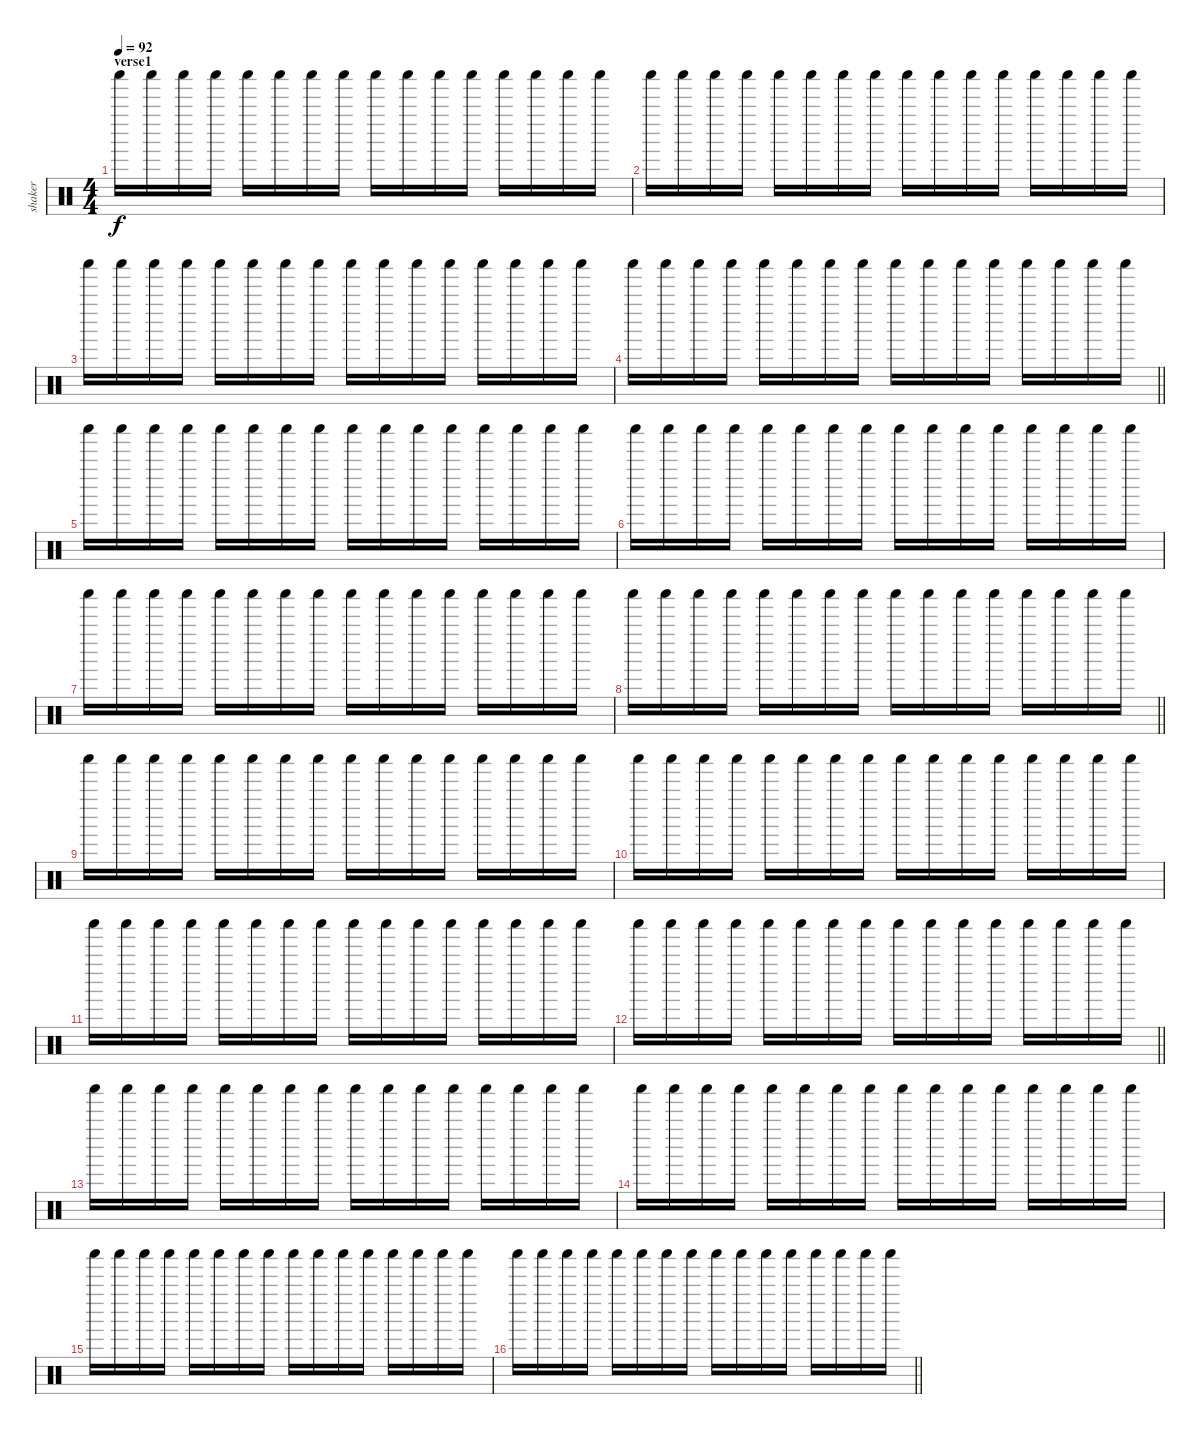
\track ("shaker" "shaker") {instrument percussion}
\staff {score}
\articulation defaults
\ts (4 4)
\section ("" "verse1")
\tempo 92
\clef neutral
\ks c "Shaker (hit)".16{dy f} "Shaker (hit)".16 "Shaker (hit)".16 "Shaker (hit)".16 "Shaker (hit)".16 "Shaker (hit)".16 "Shaker (hit)".16 "Shaker (hit)".16 "Shaker (hit)".16 "Shaker (hit)".16 "Shaker (hit)".16 "Shaker (hit)".16 "Shaker (hit)".16 "Shaker (hit)".16 "Shaker (hit)".16 "Shaker (hit)".16
|
"Shaker (hit)".16 "Shaker (hit)".16 "Shaker (hit)".16 "Shaker (hit)".16 "Shaker (hit)".16 "Shaker (hit)".16 "Shaker (hit)".16 "Shaker (hit)".16 "Shaker (hit)".16 "Shaker (hit)".16 "Shaker (hit)".16 "Shaker (hit)".16 "Shaker (hit)".16 "Shaker (hit)".16 "Shaker (hit)".16 "Shaker (hit)".16 |
"Shaker (hit)".16 "Shaker (hit)".16 "Shaker (hit)".16 "Shaker (hit)".16 "Shaker (hit)".16 "Shaker (hit)".16 "Shaker (hit)".16 "Shaker (hit)".16 "Shaker (hit)".16 "Shaker (hit)".16 "Shaker (hit)".16 "Shaker (hit)".16 "Shaker (hit)".16 "Shaker (hit)".16 "Shaker (hit)".16 "Shaker (hit)".16 |
\barLineRight lightlight "Shaker (hit)".16 "Shaker (hit)".16 "Shaker (hit)".16 "Shaker (hit)".16 "Shaker (hit)".16 "Shaker (hit)".16 "Shaker (hit)".16 "Shaker (hit)".16 "Shaker (hit)".16 "Shaker (hit)".16 "Shaker (hit)".16 "Shaker (hit)".16 "Shaker (hit)".16 "Shaker (hit)".16 "Shaker (hit)".16 "Shaker (hit)".16
|
"Shaker (hit)".16 "Shaker (hit)".16 "Shaker (hit)".16 "Shaker (hit)".16 "Shaker (hit)".16 "Shaker (hit)".16 "Shaker (hit)".16 "Shaker (hit)".16 "Shaker (hit)".16 "Shaker (hit)".16 "Shaker (hit)".16 "Shaker (hit)".16 "Shaker (hit)".16 "Shaker (hit)".16 "Shaker (hit)".16 "Shaker (hit)".16 |
"Shaker (hit)".16 "Shaker (hit)".16 "Shaker (hit)".16 "Shaker (hit)".16 "Shaker (hit)".16 "Shaker (hit)".16 "Shaker (hit)".16 "Shaker (hit)".16 "Shaker (hit)".16 "Shaker (hit)".16 "Shaker (hit)".16 "Shaker (hit)".16 "Shaker (hit)".16 "Shaker (hit)".16 "Shaker (hit)".16 "Shaker (hit)".16 |
"Shaker (hit)".16 "Shaker (hit)".16 "Shaker (hit)".16 "Shaker (hit)".16 "Shaker (hit)".16 "Shaker (hit)".16 "Shaker (hit)".16 "Shaker (hit)".16 "Shaker (hit)".16 "Shaker (hit)".16 "Shaker (hit)".16 "Shaker (hit)".16 "Shaker (hit)".16 "Shaker (hit)".16 "Shaker (hit)".16 "Shaker (hit)".16 |
\barLineRight lightlight "Shaker (hit)".16 "Shaker (hit)".16 "Shaker (hit)".16 "Shaker (hit)".16 "Shaker (hit)".16 "Shaker (hit)".16 "Shaker (hit)".16 "Shaker (hit)".16 "Shaker (hit)".16 "Shaker (hit)".16 "Shaker (hit)".16 "Shaker (hit)".16 "Shaker (hit)".16 "Shaker (hit)".16 "Shaker (hit)".16 "Shaker (hit)".16
|
"Shaker (hit)".16 "Shaker (hit)".16 "Shaker (hit)".16 "Shaker (hit)".16 "Shaker (hit)".16 "Shaker (hit)".16 "Shaker (hit)".16 "Shaker (hit)".16 "Shaker (hit)".16 "Shaker (hit)".16 "Shaker (hit)".16 "Shaker (hit)".16 "Shaker (hit)".16 "Shaker (hit)".16 "Shaker (hit)".16 "Shaker (hit)".16 |
"Shaker (hit)".16 "Shaker (hit)".16 "Shaker (hit)".16 "Shaker (hit)".16 "Shaker (hit)".16 "Shaker (hit)".16 "Shaker (hit)".16 "Shaker (hit)".16 "Shaker (hit)".16 "Shaker (hit)".16 "Shaker (hit)".16 "Shaker (hit)".16 "Shaker (hit)".16 "Shaker (hit)".16 "Shaker (hit)".16 "Shaker (hit)".16 |
"Shaker (hit)".16 "Shaker (hit)".16 "Shaker (hit)".16 "Shaker (hit)".16 "Shaker (hit)".16 "Shaker (hit)".16 "Shaker (hit)".16 "Shaker (hit)".16 "Shaker (hit)".16 "Shaker (hit)".16 "Shaker (hit)".16 "Shaker (hit)".16 "Shaker (hit)".16 "Shaker (hit)".16 "Shaker (hit)".16 "Shaker (hit)".16 |
\barLineRight lightlight "Shaker (hit)".16 "Shaker (hit)".16 "Shaker (hit)".16 "Shaker (hit)".16 "Shaker (hit)".16 "Shaker (hit)".16 "Shaker (hit)".16 "Shaker (hit)".16 "Shaker (hit)".16 "Shaker (hit)".16 "Shaker (hit)".16 "Shaker (hit)".16 "Shaker (hit)".16 "Shaker (hit)".16 "Shaker (hit)".16 "Shaker (hit)".16
|
"Shaker (hit)".16 "Shaker (hit)".16 "Shaker (hit)".16 "Shaker (hit)".16 "Shaker (hit)".16 "Shaker (hit)".16 "Shaker (hit)".16 "Shaker (hit)".16 "Shaker (hit)".16 "Shaker (hit)".16 "Shaker (hit)".16 "Shaker (hit)".16 "Shaker (hit)".16 "Shaker (hit)".16 "Shaker (hit)".16 "Shaker (hit)".16 |
"Shaker (hit)".16 "Shaker (hit)".16 "Shaker (hit)".16 "Shaker (hit)".16 "Shaker (hit)".16 "Shaker (hit)".16 "Shaker (hit)".16 "Shaker (hit)".16 "Shaker (hit)".16 "Shaker (hit)".16 "Shaker (hit)".16 "Shaker (hit)".16 "Shaker (hit)".16 "Shaker (hit)".16 "Shaker (hit)".16 "Shaker (hit)".16 |
"Shaker (hit)".16 "Shaker (hit)".16 "Shaker (hit)".16 "Shaker (hit)".16 "Shaker (hit)".16 "Shaker (hit)".16 "Shaker (hit)".16 "Shaker (hit)".16 "Shaker (hit)".16 "Shaker (hit)".16 "Shaker (hit)".16 "Shaker (hit)".16 "Shaker (hit)".16 "Shaker (hit)".16 "Shaker (hit)".16 "Shaker (hit)".16 |
\barLineRight lightlight "Shaker (hit)".16 "Shaker (hit)".16 "Shaker (hit)".16 "Shaker (hit)".16 "Shaker (hit)".16 "Shaker (hit)".16 "Shaker (hit)".16 "Shaker (hit)".16 "Shaker (hit)".16 "Shaker (hit)".16 "Shaker (hit)".16 "Shaker (hit)".16 "Shaker (hit)".16 "Shaker (hit)".16 "Shaker (hit)".16 "Shaker (hit)".16
